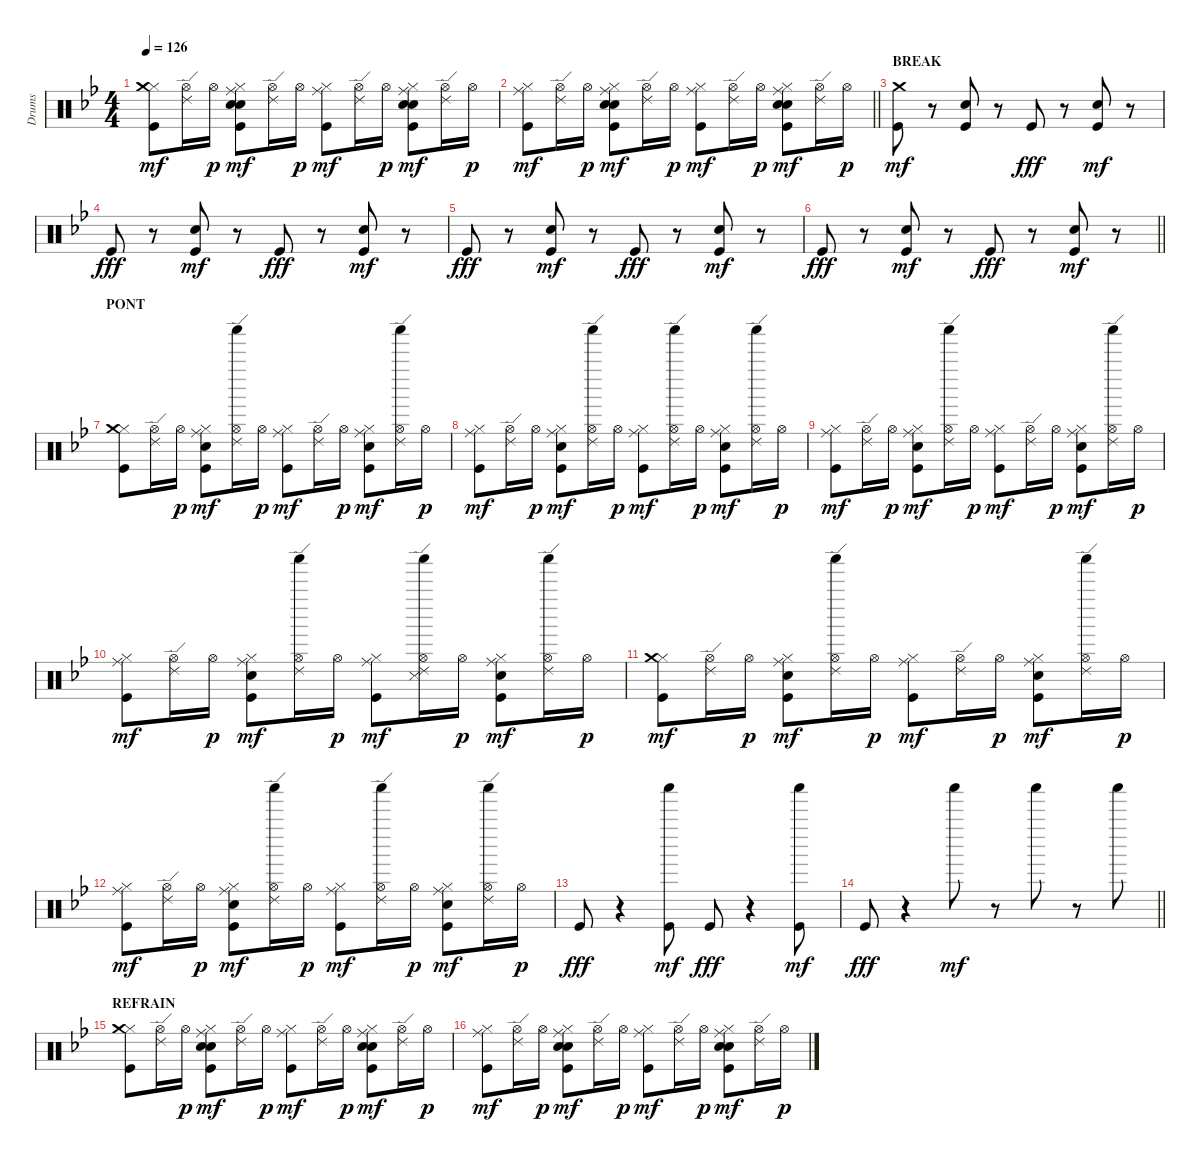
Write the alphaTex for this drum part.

\track ("Drums" "Drums") {instrument percussion}
\staff {score}
\articulation defaults
\ts (4 4)
\tempo 126
\clef neutral
\ks bb
("Hi-Hat (closed)" "Kick (hit)" "Crash medium (hit)").8{dy mf} ("Hi-Hat (open)" "Ride (edge) 2").16 "Hi-Hat (open)".16{dy p} ("Hi-Hat (closed)" "Kick (hit)" "Hand Clap (hit)" "Electric Snare (hit)" "Ride (middle)").8{dy mf} ("Hi-Hat (open)" "Ride (edge) 2").16 "Hi-Hat (open)".16{dy p} ("Hi-Hat (closed)" "Kick (hit)" "Ride (middle)").8{dy mf} ("Hi-Hat (open)" "Ride (edge) 2").16 "Hi-Hat (open)".16{dy p} ("Hi-Hat (closed)" "Kick (hit)" "Hand Clap (hit)" "Electric Snare (hit)" "Ride (middle)").8{dy mf} ("Hi-Hat (open)" "Ride (edge) 2").16 "Hi-Hat (open)".16{dy p} |
\barLineRight lightlight
("Hi-Hat (closed)" "Kick (hit)" "Ride (middle)").8{dy mf} ("Hi-Hat (open)" "Ride (edge) 2").16 "Hi-Hat (open)".16{dy p} ("Hi-Hat (closed)" "Kick (hit)" "Hand Clap (hit)" "Electric Snare (hit)" "Ride (middle)").8{dy mf} ("Hi-Hat (open)" "Ride (edge) 2").16 "Hi-Hat (open)".16{dy p} ("Hi-Hat (closed)" "Kick (hit)" "Ride (middle)").8{dy mf} ("Hi-Hat (open)" "Ride (edge) 2").16 "Hi-Hat (open)".16{dy p} ("Hi-Hat (closed)" "Kick (hit)" "Hand Clap (hit)" "Electric Snare (hit)" "Ride (middle)").8{dy mf} ("Hi-Hat (open)" "Ride (edge) 2").16 "Hi-Hat (open)".16{dy p} |
\section ("" "BREAK")
("Kick (hit)" "Crash medium (hit)").8{dy mf} r.8 ("Kick (hit)" "Hand Clap (hit)").8 r.8 "Kick (hit)".8{dy fff} r.8 ("Kick (hit)" "Hand Clap (hit)").8{dy mf} r.8 |
"Kick (hit)".8{dy fff} r.8 ("Kick (hit)" "Hand Clap (hit)").8{dy mf} r.8 "Kick (hit)".8{dy fff} r.8 ("Kick (hit)" "Hand Clap (hit)").8{dy mf} r.8 |
"Kick (hit)".8{dy fff} r.8 ("Kick (hit)" "Hand Clap (hit)").8{dy mf} r.8 "Kick (hit)".8{dy fff} r.8 ("Kick (hit)" "Hand Clap (hit)").8{dy mf} r.8 |
\barLineRight lightlight "Kick (hit)".8{dy fff}
r.8 ("Kick (hit)" "Hand Clap (hit)").8{dy mf} r.8 "Kick (hit)".8{dy fff} r.8 ("Kick (hit)" "Hand Clap (hit)").8{dy mf} r.8 |
\section ("" "PONT")
("Kick (hit)" "Hi-Hat (closed)" "Crash medium (hit)").8 ("Hi-Hat (open)" "Ride (edge) 2").16 "Hi-Hat (open)".16{dy p} ("Kick (hit)" "Hand Clap (hit)" "Hi-Hat (closed)" "Ride (middle)").8{dy mf} ("Hi-Hat (open)" "Ride (edge) 2" "Shaker (hit)").16 "Hi-Hat (open)".16{dy p} ("Kick (hit)" "Hi-Hat (closed)" "Ride (middle)").8{dy mf} ("Hi-Hat (open)" "Ride (edge) 2").16 "Hi-Hat (open)".16{dy p} ("Kick (hit)" "Hand Clap (hit)" "Hi-Hat (closed)" "Ride (middle)").8{dy mf} ("Hi-Hat (open)" "Ride (edge) 2" "Shaker (hit)").16 "Hi-Hat (open)".16{dy p} |
("Kick (hit)" "Hi-Hat (closed)" "Ride (middle)").8{dy mf} ("Hi-Hat (open)" "Ride (edge) 2").16 "Hi-Hat (open)".16{dy p} ("Kick (hit)" "Hand Clap (hit)" "Hi-Hat (closed)" "Ride (middle)").8{dy mf} ("Hi-Hat (open)" "Ride (edge) 2" "Shaker (hit)").16 "Hi-Hat (open)".16{dy p} ("Kick (hit)" "Hi-Hat (closed)" "Ride (middle)").8{dy mf} ("Hi-Hat (open)" "Ride (edge) 2" "Shaker (hit)").16 "Hi-Hat (open)".16{dy p} ("Kick (hit)" "Hand Clap (hit)" "Hi-Hat (closed)" "Ride (middle)").8{dy mf} ("Hi-Hat (open)" "Ride (edge) 2" "Shaker (hit)").16 "Hi-Hat (open)".16{dy p} |
("Kick (hit)" "Hi-Hat (closed)" "Ride (middle)").8{dy mf} ("Hi-Hat (open)" "Ride (edge) 2").16 "Hi-Hat (open)".16{dy p} ("Kick (hit)" "Hand Clap (hit)" "Hi-Hat (closed)" "Ride (middle)").8{dy mf} ("Hi-Hat (open)" "Ride (edge) 2" "Shaker (hit)").16 "Hi-Hat (open)".16{dy p} ("Kick (hit)" "Hi-Hat (closed)" "Ride (middle)").8{dy mf} ("Hi-Hat (open)" "Ride (edge) 2").16 "Hi-Hat (open)".16{dy p} ("Kick (hit)" "Hand Clap (hit)" "Hi-Hat (closed)" "Ride (middle)").8{dy mf} ("Hi-Hat (open)" "Ride (edge) 2" "Shaker (hit)").16 "Hi-Hat (open)".16{dy p} |
("Kick (hit)" "Hi-Hat (closed)" "Ride (middle)").8{dy mf} ("Hi-Hat (open)" "Ride (edge) 2").16 "Hi-Hat (open)".16{dy p} ("Kick (hit)" "Hand Clap (hit)" "Hi-Hat (closed)" "Ride (middle)").8{dy mf} ("Hi-Hat (open)" "Ride (edge) 2" "Shaker (hit)").16 "Hi-Hat (open)".16{dy p} ("Kick (hit)" "Hi-Hat (closed)" "Ride (middle)").8{dy mf} ("Snare (side stick) 3" "Hi-Hat (open)" "Ride (edge) 2" "Shaker (hit)").16 "Hi-Hat (open)".16{dy p} ("Kick (hit)" "Hand Clap (hit)" "Hi-Hat (closed)" "Ride (middle)").8{dy mf} ("Hi-Hat (open)" "Ride (edge) 2" "Shaker (hit)").16 "Hi-Hat (open)".16{dy p} |
("Kick (hit)" "Hi-Hat (closed)" "Crash medium (hit)").8{dy mf} ("Hi-Hat (open)" "Ride (edge) 2").16 "Hi-Hat (open)".16{dy p} ("Kick (hit)" "Hand Clap (hit)" "Hi-Hat (closed)" "Ride (middle)").8{dy mf} ("Hi-Hat (open)" "Ride (edge) 2" "Shaker (hit)").16 "Hi-Hat (open)".16{dy p} ("Kick (hit)" "Hi-Hat (closed)" "Ride (middle)").8{dy mf} ("Hi-Hat (open)" "Ride (edge) 2").16 "Hi-Hat (open)".16{dy p} ("Kick (hit)" "Hand Clap (hit)" "Hi-Hat (closed)" "Ride (middle)").8{dy mf} ("Hi-Hat (open)" "Ride (edge) 2" "Shaker (hit)").16 "Hi-Hat (open)".16{dy p} |
("Kick (hit)" "Hi-Hat (closed)" "Ride (middle)").8{dy mf} ("Hi-Hat (open)" "Ride (edge) 2").16 "Hi-Hat (open)".16{dy p} ("Kick (hit)" "Hand Clap (hit)" "Hi-Hat (closed)" "Ride (middle)").8{dy mf} ("Hi-Hat (open)" "Ride (edge) 2" "Shaker (hit)").16 "Hi-Hat (open)".16{dy p} ("Kick (hit)" "Hi-Hat (closed)" "Ride (middle)").8{dy mf} ("Hi-Hat (open)" "Ride (edge) 2" "Shaker (hit)").16 "Hi-Hat (open)".16{dy p} ("Kick (hit)" "Hand Clap (hit)" "Hi-Hat (closed)" "Ride (middle)").8{dy mf} ("Hi-Hat (open)" "Ride (edge) 2" "Shaker (hit)").16 "Hi-Hat (open)".16{dy p} |
"Kick (hit)".8{dy fff} r.4 ("Kick (hit)" "Shaker (hit)").8{dy mf} "Kick (hit)".8{dy fff} r.4 ("Kick (hit)" "Shaker (hit)").8{dy mf} |
\barLineRight lightlight "Kick (hit)".8{dy fff}
r.4 "Shaker (hit)".8{dy mf} r.8 "Shaker (hit)".8 r.8 "Shaker (hit)".8 |
\section ("" "REFRAIN")
("Hi-Hat (closed)" "Kick (hit)" "Crash medium (hit)").8 ("Hi-Hat (open)" "Ride (edge) 2").16 "Hi-Hat (open)".16{dy p} ("Hi-Hat (closed)" "Kick (hit)" "Hand Clap (hit)" "Electric Snare (hit)" "Ride (middle)").8{dy mf} ("Hi-Hat (open)" "Ride (edge) 2").16 "Hi-Hat (open)".16{dy p} ("Hi-Hat (closed)" "Kick (hit)" "Ride (middle)").8{dy mf} ("Hi-Hat (open)" "Ride (edge) 2").16 "Hi-Hat (open)".16{dy p} ("Hi-Hat (closed)" "Kick (hit)" "Hand Clap (hit)" "Electric Snare (hit)" "Ride (middle)").8{dy mf} ("Hi-Hat (open)" "Ride (edge) 2").16 "Hi-Hat (open)".16{dy p} |
("Hi-Hat (closed)" "Kick (hit)" "Ride (middle)").8{dy mf} ("Hi-Hat (open)" "Ride (edge) 2").16 "Hi-Hat (open)".16{dy p} ("Hi-Hat (closed)" "Kick (hit)" "Hand Clap (hit)" "Electric Snare (hit)" "Ride (middle)").8{dy mf} ("Hi-Hat (open)" "Ride (edge) 2").16 "Hi-Hat (open)".16{dy p} ("Hi-Hat (closed)" "Kick (hit)" "Ride (middle)").8{dy mf} ("Hi-Hat (open)" "Ride (edge) 2").16 "Hi-Hat (open)".16{dy p} ("Hi-Hat (closed)" "Kick (hit)" "Hand Clap (hit)" "Electric Snare (hit)" "Ride (middle)").8{dy mf} ("Hi-Hat (open)" "Ride (edge) 2").16 "Hi-Hat (open)".16{dy p}
